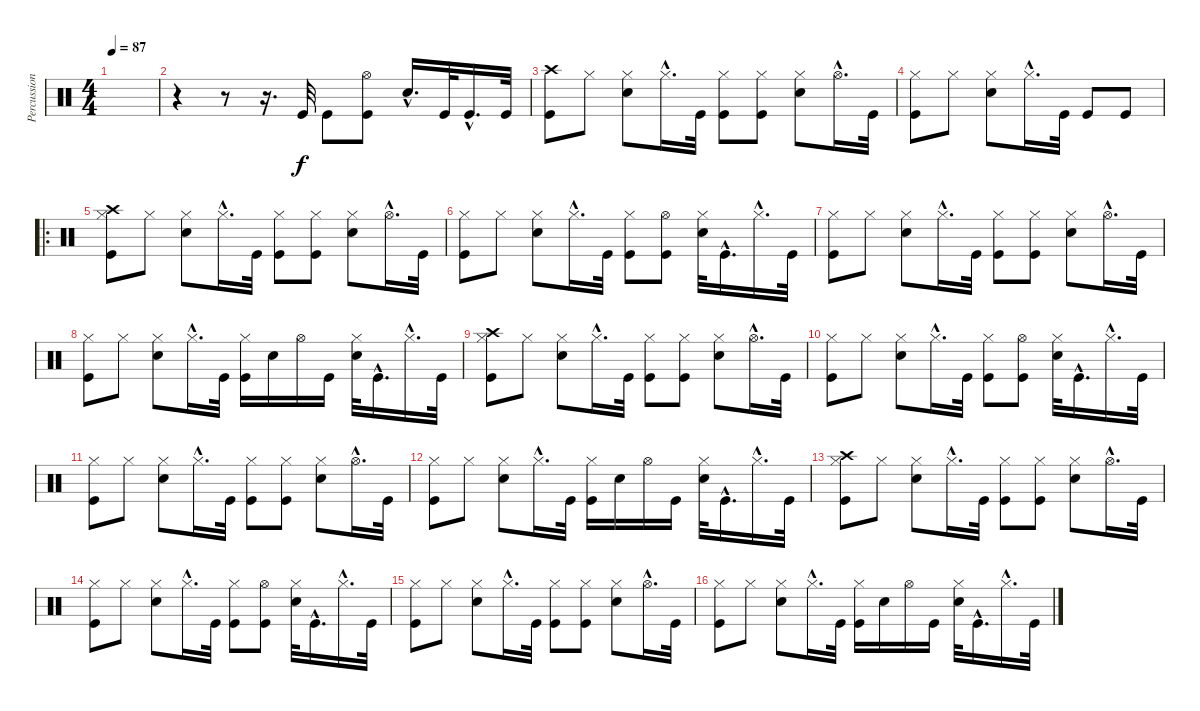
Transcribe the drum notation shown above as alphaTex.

\track ("Percussion" "Percussion") {instrument percussion}
\staff {score}
\articulation defaults
\ts (4 4)
\tempo 87
\clef neutral
\ks c
|
r.4 r.8 r.16{d} "Kick (hit)".32 "Kick (hit)".8 ("Hi-Hat (open)" "Kick (hit)").8 "Electric Snare (hit)"{hac}.16{d} "Kick (hit)".32 "Kick (hit)"{hac}.16{d} "Kick (hit)".32 |
("Crash high (hit)" "Kick (hit)").8 "Hi-Hat (closed)".8 ("Hi-Hat (closed)" "Electric Snare (hit)").8 "Hi-Hat (closed)"{hac}.16{d} "Kick (hit)".32 ("Hi-Hat (closed)" "Kick (hit)").8 ("Hi-Hat (closed)" "Kick (hit)").8 ("Hi-Hat (closed)" "Electric Snare (hit)").8 "Hi-Hat (open)"{hac}.16{d} "Kick (hit)".32 |
("Hi-Hat (closed)" "Kick (hit)").8 "Hi-Hat (closed)".8 ("Hi-Hat (closed)" "Electric Snare (hit)").8 "Hi-Hat (closed)"{hac}.16{d} "Kick (hit)".32 "Kick (hit)".8 "Kick (hit)".8 |
\ro
("Crash high (hit)" "Hi-Hat (closed)" "Kick (hit)").8 "Hi-Hat (closed)".8 ("Hi-Hat (closed)" "Electric Snare (hit)").8 "Hi-Hat (closed)"{hac}.16{d} "Kick (hit)".32 ("Hi-Hat (closed)" "Kick (hit)").8 ("Hi-Hat (closed)" "Kick (hit)").8 ("Hi-Hat (closed)" "Electric Snare (hit)").8 "Hi-Hat (open)"{hac}.16{d} "Kick (hit)".32 |
("Hi-Hat (closed)" "Kick (hit)").8 "Hi-Hat (closed)".8 ("Hi-Hat (closed)" "Electric Snare (hit)").8 "Hi-Hat (closed)"{hac}.16{d} "Kick (hit)".32 ("Hi-Hat (closed)" "Kick (hit)").8 ("Hi-Hat (open)" "Kick (hit)").8 ("Hi-Hat (closed)" "Electric Snare (hit)").32 "Kick (hit)"{hac}.16{d} "Hi-Hat (closed)"{hac}.16{d} "Kick (hit)".32 |
("Hi-Hat (closed)" "Kick (hit)").8 "Hi-Hat (closed)".8 ("Hi-Hat (closed)" "Electric Snare (hit)").8 "Hi-Hat (closed)"{hac}.16{d} "Kick (hit)".32 ("Hi-Hat (closed)" "Kick (hit)").8 ("Hi-Hat (closed)" "Kick (hit)").8 ("Hi-Hat (closed)" "Electric Snare (hit)").8 "Hi-Hat (open)"{hac}.16{d} "Kick (hit)".32 |
("Hi-Hat (closed)" "Kick (hit)").8 "Hi-Hat (closed)".8 ("Hi-Hat (closed)" "Electric Snare (hit)").8 "Hi-Hat (closed)"{hac}.16{d} "Kick (hit)".32 ("Hi-Hat (closed)" "Kick (hit)").16 "Electric Snare (hit)".16 "Hi-Hat (open)".16 "Kick (hit)".16 ("Hi-Hat (closed)" "Electric Snare (hit)").32 "Kick (hit)"{hac}.16{d} "Hi-Hat (closed)"{hac}.16{d} "Kick (hit)".32 |
("Crash high (hit)" "Hi-Hat (closed)" "Kick (hit)").8 "Hi-Hat (closed)".8 ("Hi-Hat (closed)" "Electric Snare (hit)").8 "Hi-Hat (closed)"{hac}.16{d} "Kick (hit)".32 ("Hi-Hat (closed)" "Kick (hit)").8 ("Hi-Hat (closed)" "Kick (hit)").8 ("Hi-Hat (closed)" "Electric Snare (hit)").8 "Hi-Hat (open)"{hac}.16{d} "Kick (hit)".32 |
("Hi-Hat (closed)" "Kick (hit)").8 "Hi-Hat (closed)".8 ("Hi-Hat (closed)" "Electric Snare (hit)").8 "Hi-Hat (closed)"{hac}.16{d} "Kick (hit)".32 ("Hi-Hat (closed)" "Kick (hit)").8 ("Hi-Hat (open)" "Kick (hit)").8 ("Hi-Hat (closed)" "Electric Snare (hit)").32 "Kick (hit)"{hac}.16{d} "Hi-Hat (closed)"{hac}.16{d} "Kick (hit)".32 |
("Hi-Hat (closed)" "Kick (hit)").8 "Hi-Hat (closed)".8 ("Hi-Hat (closed)" "Electric Snare (hit)").8 "Hi-Hat (closed)"{hac}.16{d} "Kick (hit)".32 ("Hi-Hat (closed)" "Kick (hit)").8 ("Hi-Hat (closed)" "Kick (hit)").8 ("Hi-Hat (closed)" "Electric Snare (hit)").8 "Hi-Hat (open)"{hac}.16{d} "Kick (hit)".32 |
("Hi-Hat (closed)" "Kick (hit)").8 "Hi-Hat (closed)".8 ("Hi-Hat (closed)" "Electric Snare (hit)").8 "Hi-Hat (closed)"{hac}.16{d} "Kick (hit)".32 ("Hi-Hat (closed)" "Kick (hit)").16 "Electric Snare (hit)".16 "Hi-Hat (open)".16 "Kick (hit)".16 ("Hi-Hat (closed)" "Electric Snare (hit)").32 "Kick (hit)"{hac}.16{d} "Hi-Hat (closed)"{hac}.16{d} "Kick (hit)".32 |
("Crash high (hit)" "Hi-Hat (closed)" "Kick (hit)").8 "Hi-Hat (closed)".8 ("Hi-Hat (closed)" "Electric Snare (hit)").8 "Hi-Hat (closed)"{hac}.16{d} "Kick (hit)".32 ("Hi-Hat (closed)" "Kick (hit)").8 ("Hi-Hat (closed)" "Kick (hit)").8 ("Hi-Hat (closed)" "Electric Snare (hit)").8 "Hi-Hat (open)"{hac}.16{d} "Kick (hit)".32 |
("Hi-Hat (closed)" "Kick (hit)").8 "Hi-Hat (closed)".8 ("Hi-Hat (closed)" "Electric Snare (hit)").8 "Hi-Hat (closed)"{hac}.16{d} "Kick (hit)".32 ("Hi-Hat (closed)" "Kick (hit)").8 ("Hi-Hat (open)" "Kick (hit)").8 ("Hi-Hat (closed)" "Electric Snare (hit)").32 "Kick (hit)"{hac}.16{d} "Hi-Hat (closed)"{hac}.16{d} "Kick (hit)".32 |
("Hi-Hat (closed)" "Kick (hit)").8 "Hi-Hat (closed)".8 ("Hi-Hat (closed)" "Electric Snare (hit)").8 "Hi-Hat (closed)"{hac}.16{d} "Kick (hit)".32 ("Hi-Hat (closed)" "Kick (hit)").8 ("Hi-Hat (closed)" "Kick (hit)").8 ("Hi-Hat (closed)" "Electric Snare (hit)").8 "Hi-Hat (open)"{hac}.16{d} "Kick (hit)".32 |
("Hi-Hat (closed)" "Kick (hit)").8 "Hi-Hat (closed)".8 ("Hi-Hat (closed)" "Electric Snare (hit)").8 "Hi-Hat (closed)"{hac}.16{d} "Kick (hit)".32 ("Hi-Hat (closed)" "Kick (hit)").16 "Electric Snare (hit)".16 "Hi-Hat (open)".16 "Kick (hit)".16 ("Hi-Hat (closed)" "Electric Snare (hit)").32 "Kick (hit)"{hac}.16{d} "Hi-Hat (closed)"{hac}.16{d} "Kick (hit)".32
